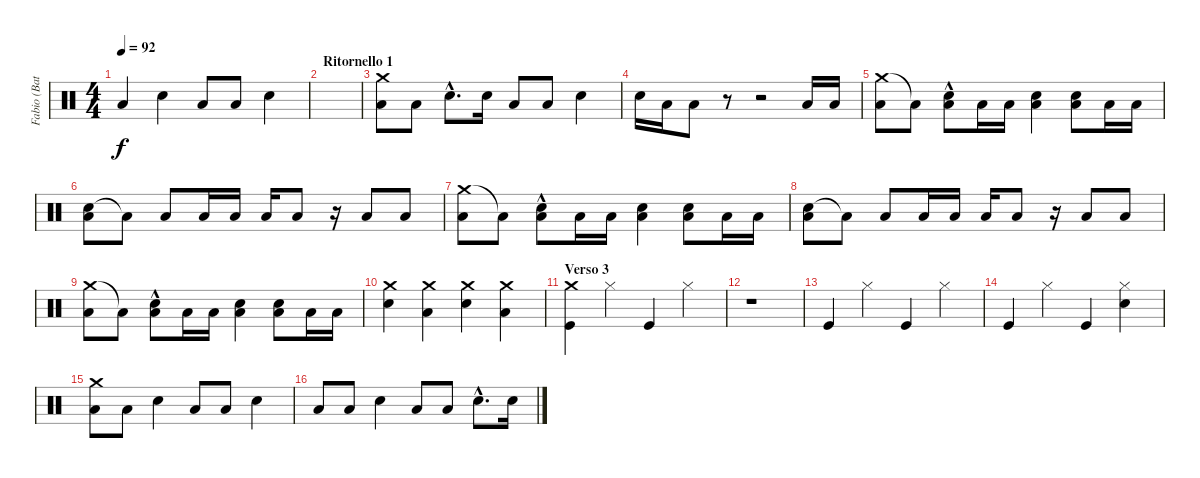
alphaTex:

\track ("Fabio (Batteria)" "Fabio (Bat") {instrument percussion}
\staff {score}
\articulation defaults
\ts (4 4)
\tempo 92
\clef neutral
\ks c "Low Tom (hit)".4{dy f} "Snare (hit) 2".4 "Low Tom (hit)".8 "Low Tom (hit)".8 "Snare (hit) 2".4
|
\section ("" "Ritornello 1")
|
("Crash medium (hit)" "Low Tom (hit)").8 "Low Tom (hit)".8 "Snare (hit) 2"{hac}.8{d} "Snare (hit) 2".16 "Low Tom (hit)".8 "Low Tom (hit)".8 "Snare (hit) 2".4 |
"Snare (hit) 2".16 "Low Tom (hit)".16 "Low Tom (hit)".8 r.8 r.2 "Low Tom (hit)".16 "Low Tom (hit)".16 |
("Crash medium (hit)" "Low Tom (hit)").8 "Low Tom (hit)"{t}.8 ("Snare (hit) 2"{hac} "Low Tom (hit)").8 "Low Tom (hit)".16 "Low Tom (hit)".16 ("Snare (hit) 2" "Low Tom (hit)").4 ("Snare (hit) 2" "Low Tom (hit)").8 "Low Tom (hit)".16 "Low Tom (hit)".16 |
("Snare (hit) 2" "Low Tom (hit)").8 "Low Tom (hit)"{t}.8 "Low Tom (hit)".8 "Low Tom (hit)".16 "Low Tom (hit)".16 "Low Tom (hit)".16 "Low Tom (hit)".8 r.16 "Low Tom (hit)".8 "Low Tom (hit)".8 |
("Crash medium (hit)" "Low Tom (hit)").8 "Low Tom (hit)"{t}.8 ("Snare (hit) 2"{hac} "Low Tom (hit)").8 "Low Tom (hit)".16 "Low Tom (hit)".16 ("Snare (hit) 2" "Low Tom (hit)").4 ("Snare (hit) 2" "Low Tom (hit)").8 "Low Tom (hit)".16 "Low Tom (hit)".16 |
("Snare (hit) 2" "Low Tom (hit)").8 "Low Tom (hit)"{t}.8 "Low Tom (hit)".8 "Low Tom (hit)".16 "Low Tom (hit)".16 "Low Tom (hit)".16 "Low Tom (hit)".8 r.16 "Low Tom (hit)".8 "Low Tom (hit)".8 |
("Crash medium (hit)" "Low Tom (hit)").8 "Low Tom (hit)"{t}.8 ("Snare (hit) 2"{hac} "Low Tom (hit)").8 "Low Tom (hit)".16 "Low Tom (hit)".16 ("Snare (hit) 2" "Low Tom (hit)").4 ("Snare (hit) 2" "Low Tom (hit)").8 "Low Tom (hit)".16 "Low Tom (hit)".16 |
("Crash medium (hit)" "Snare (hit) 2").4 ("Crash medium (hit)" "Low Tom (hit)").4 ("Crash medium (hit)" "Snare (hit) 2").4 ("Crash medium (hit)" "Low Tom (hit)").4 |
\section ("" "Verso 3")
("Crash medium (hit)" "Kick (hit)").4 "Hi-Hat (closed)".4 "Kick (hit)".4 "Hi-Hat (closed)".4 |
r.1 |
"Kick (hit)".4 "Hi-Hat (closed)".4 "Kick (hit)".4 "Hi-Hat (closed)".4 |
"Kick (hit)".4 "Hi-Hat (closed)".4 "Kick (hit)".4 ("Snare (hit) 2" "Hi-Hat (closed)").4 |
("Crash medium (hit)" "Low Tom (hit)").8 "Low Tom (hit)".8 "Snare (hit) 2".4 "Low Tom (hit)".8 "Low Tom (hit)".8 "Snare (hit) 2".4 |
"Low Tom (hit)".8 "Low Tom (hit)".8 "Snare (hit) 2".4 "Low Tom (hit)".8 "Low Tom (hit)".8 "Snare (hit) 2"{hac}.8{d} "Snare (hit) 2".16
